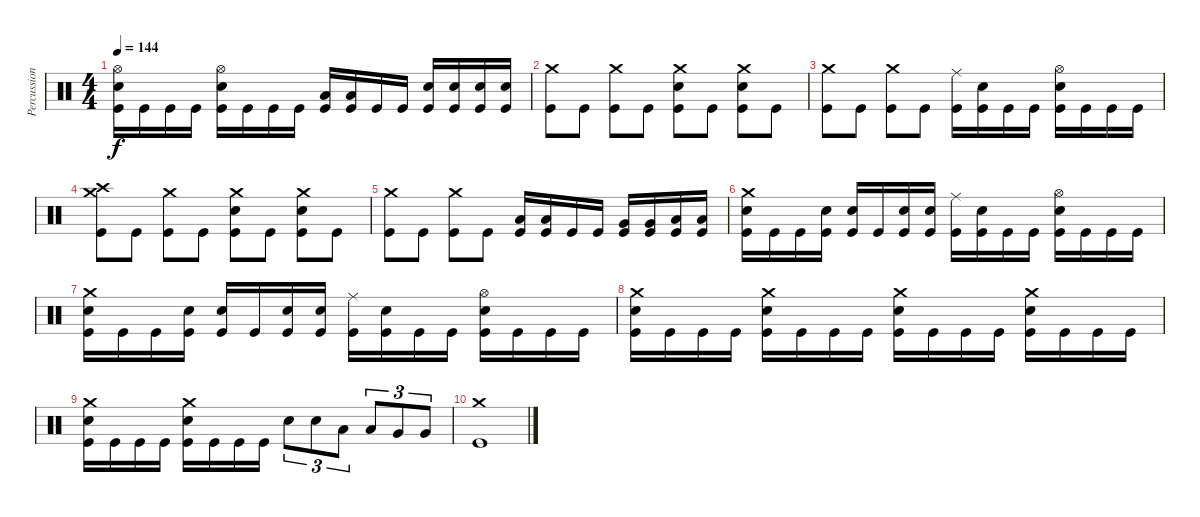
\track ("Percussion" "Percussion") {instrument percussion}
\staff {score}
\articulation defaults
\ts (4 4)
\tempo 144
\clef neutral
\ks c
("Hi-Hat (open)" "Electric Snare (hit)" "Kick (hit)").16{dy f} "Kick (hit)".16 "Kick (hit)".16 "Kick (hit)".16 ("Hi-Hat (open)" "Electric Snare (hit)" "Kick (hit)").16 "Kick (hit)".16 "Kick (hit)".16 "Kick (hit)".16 ("Low Tom (hit)" "Kick (hit)").16 ("Low Tom (hit)" "Kick (hit)").16 "Kick (hit)".16 "Kick (hit)".16 ("Electric Snare (hit)" "Kick (hit)").16 ("Electric Snare (hit)" "Kick (hit)").16 ("Electric Snare (hit)" "Kick (hit)").16 ("Electric Snare (hit)" "Kick (hit)").16 |
("Crash medium (hit)" "Kick (hit)").8 "Kick (hit)".8 ("Crash medium (hit)" "Kick (hit)").8 "Kick (hit)".8 ("Crash medium (hit)" "Electric Snare (hit)" "Kick (hit)").8 "Kick (hit)".8 ("Crash medium (hit)" "Electric Snare (hit)" "Kick (hit)").8 "Kick (hit)".8 |
("Crash medium (hit)" "Kick (hit)").8 "Kick (hit)".8 ("Crash medium (hit)" "Kick (hit)").8 "Kick (hit)".8 ("Ride (middle)" "Kick (hit)").16 ("Electric Snare (hit)" "Kick (hit)").16 "Kick (hit)".16 "Kick (hit)".16 ("Hi-Hat (open)" "Electric Snare (hit)" "Kick (hit)").16 "Kick (hit)".16 "Kick (hit)".16 "Kick (hit)".16 |
("Crash medium (hit)" "Crash high (hit)" "Kick (hit)").8 "Kick (hit)".8 ("Crash medium (hit)" "Kick (hit)").8 "Kick (hit)".8 ("Crash medium (hit)" "Electric Snare (hit)" "Kick (hit)").8 "Kick (hit)".8 ("Crash medium (hit)" "Electric Snare (hit)" "Kick (hit)").8 "Kick (hit)".8 |
("Crash medium (hit)" "Kick (hit)").8 "Kick (hit)".8 ("Crash medium (hit)" "Kick (hit)").8 "Kick (hit)".8 ("Low Tom (hit)" "Kick (hit)").16 ("Low Tom (hit)" "Kick (hit)").16 "Kick (hit)".16 "Kick (hit)".16 ("Very Low Tom (hit)" "Kick (hit)").16 ("Very Low Tom (hit)" "Kick (hit)").16 ("Low Floor Tom (hit)" "Kick (hit)").16 ("Low Floor Tom (hit)" "Kick (hit)").16 |
("Crash medium (hit)" "Electric Snare (hit)" "Kick (hit)").16 "Kick (hit)".16 "Kick (hit)".16 ("Electric Snare (hit)" "Kick (hit)").16 ("Electric Snare (hit)" "Kick (hit)").16 "Kick (hit)".16 ("Electric Snare (hit)" "Kick (hit)").16 ("Electric Snare (hit)" "Kick (hit)").16 ("Ride (middle)" "Kick (hit)").16 ("Electric Snare (hit)" "Kick (hit)").16 "Kick (hit)".16 "Kick (hit)".16 ("Hi-Hat (open)" "Electric Snare (hit)" "Kick (hit)").16 "Kick (hit)".16 "Kick (hit)".16 "Kick (hit)".16 |
("Crash medium (hit)" "Electric Snare (hit)" "Kick (hit)").16 "Kick (hit)".16 "Kick (hit)".16 ("Electric Snare (hit)" "Kick (hit)").16 ("Electric Snare (hit)" "Kick (hit)").16 "Kick (hit)".16 ("Electric Snare (hit)" "Kick (hit)").16 ("Electric Snare (hit)" "Kick (hit)").16 ("Ride (middle)" "Kick (hit)").16 ("Electric Snare (hit)" "Kick (hit)").16 "Kick (hit)".16 "Kick (hit)".16 ("Hi-Hat (open)" "Electric Snare (hit)" "Kick (hit)").16 "Kick (hit)".16 "Kick (hit)".16 "Kick (hit)".16 |
("Crash medium (hit)" "Electric Snare (hit)" "Kick (hit)").16 "Kick (hit)".16 "Kick (hit)".16 "Kick (hit)".16 ("Crash medium (hit)" "Electric Snare (hit)" "Kick (hit)").16 "Kick (hit)".16 "Kick (hit)".16 "Kick (hit)".16 ("Crash medium (hit)" "Electric Snare (hit)" "Kick (hit)").16 "Kick (hit)".16 "Kick (hit)".16 "Kick (hit)".16 ("Crash medium (hit)" "Electric Snare (hit)" "Kick (hit)").16 "Kick (hit)".16 "Kick (hit)".16 "Kick (hit)".16 |
("Crash medium (hit)" "Electric Snare (hit)" "Kick (hit)").16 "Kick (hit)".16 "Kick (hit)".16 "Kick (hit)".16 ("Crash medium (hit)" "Electric Snare (hit)" "Kick (hit)").16 "Kick (hit)".16 "Kick (hit)".16 "Kick (hit)".16 "Electric Snare (hit)".8{tu (3 2)} "Electric Snare (hit)".8{tu (3 2)} "Low Tom (hit)".8{tu (3 2)} "Low Tom (hit)".8{tu (3 2)} "Very Low Tom (hit)".8{tu (3 2)} "Very Low Tom (hit)".8{tu (3 2)} |
("Crash medium (hit)" "Kick (hit)").1
